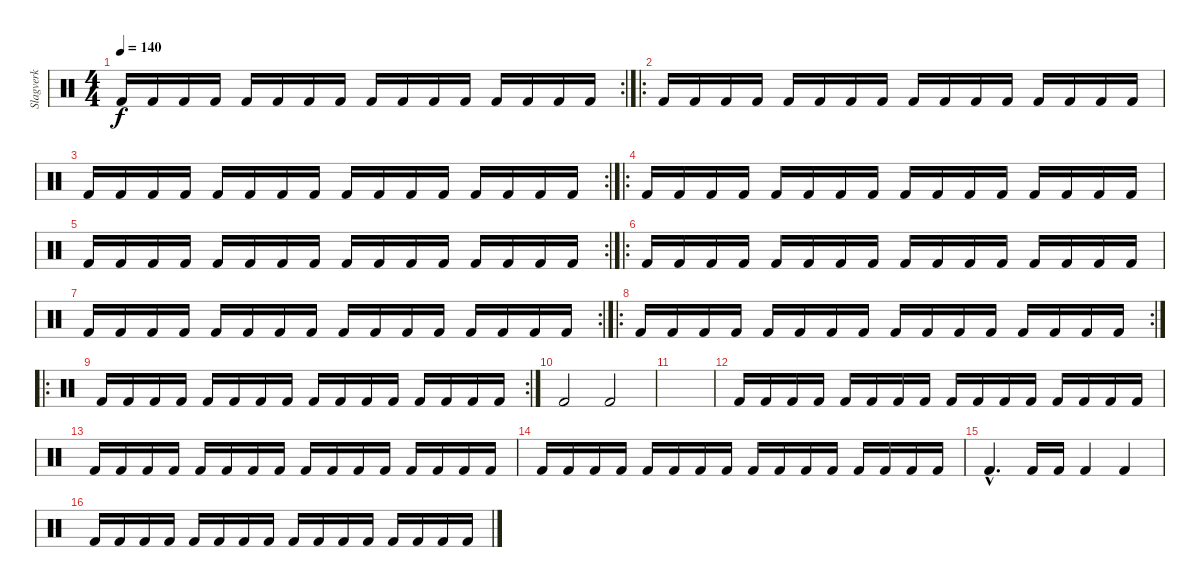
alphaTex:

\track ("Slagverk" "Slagverk") {instrument percussion}
\staff {score}
\articulation defaults
\rc 2
\ts (4 4)
\tempo 140
\clef neutral
\ks c "Kick (hit) 2".16{dy f} "Kick (hit) 2".16 "Kick (hit) 2".16 "Kick (hit) 2".16 "Kick (hit) 2".16 "Kick (hit) 2".16 "Kick (hit) 2".16 "Kick (hit) 2".16 "Kick (hit) 2".16 "Kick (hit) 2".16 "Kick (hit) 2".16 "Kick (hit) 2".16 "Kick (hit) 2".16 "Kick (hit) 2".16 "Kick (hit) 2".16 "Kick (hit) 2".16
|
\ro "Kick (hit) 2".16 "Kick (hit) 2".16 "Kick (hit) 2".16 "Kick (hit) 2".16 "Kick (hit) 2".16 "Kick (hit) 2".16 "Kick (hit) 2".16 "Kick (hit) 2".16 "Kick (hit) 2".16 "Kick (hit) 2".16 "Kick (hit) 2".16 "Kick (hit) 2".16 "Kick (hit) 2".16 "Kick (hit) 2".16 "Kick (hit) 2".16 "Kick (hit) 2".16
|
\rc 2 "Kick (hit) 2".16 "Kick (hit) 2".16 "Kick (hit) 2".16 "Kick (hit) 2".16 "Kick (hit) 2".16 "Kick (hit) 2".16 "Kick (hit) 2".16 "Kick (hit) 2".16 "Kick (hit) 2".16 "Kick (hit) 2".16 "Kick (hit) 2".16 "Kick (hit) 2".16 "Kick (hit) 2".16 "Kick (hit) 2".16 "Kick (hit) 2".16 "Kick (hit) 2".16
|
\ro "Kick (hit) 2".16 "Kick (hit) 2".16 "Kick (hit) 2".16 "Kick (hit) 2".16 "Kick (hit) 2".16 "Kick (hit) 2".16 "Kick (hit) 2".16 "Kick (hit) 2".16 "Kick (hit) 2".16 "Kick (hit) 2".16 "Kick (hit) 2".16 "Kick (hit) 2".16 "Kick (hit) 2".16 "Kick (hit) 2".16 "Kick (hit) 2".16 "Kick (hit) 2".16
|
\rc 2 "Kick (hit) 2".16 "Kick (hit) 2".16 "Kick (hit) 2".16 "Kick (hit) 2".16 "Kick (hit) 2".16 "Kick (hit) 2".16 "Kick (hit) 2".16 "Kick (hit) 2".16 "Kick (hit) 2".16 "Kick (hit) 2".16 "Kick (hit) 2".16 "Kick (hit) 2".16 "Kick (hit) 2".16 "Kick (hit) 2".16 "Kick (hit) 2".16 "Kick (hit) 2".16
|
\ro "Kick (hit) 2".16 "Kick (hit) 2".16 "Kick (hit) 2".16 "Kick (hit) 2".16 "Kick (hit) 2".16 "Kick (hit) 2".16 "Kick (hit) 2".16 "Kick (hit) 2".16 "Kick (hit) 2".16 "Kick (hit) 2".16 "Kick (hit) 2".16 "Kick (hit) 2".16 "Kick (hit) 2".16 "Kick (hit) 2".16 "Kick (hit) 2".16 "Kick (hit) 2".16
|
\rc 2 "Kick (hit) 2".16 "Kick (hit) 2".16 "Kick (hit) 2".16 "Kick (hit) 2".16 "Kick (hit) 2".16 "Kick (hit) 2".16 "Kick (hit) 2".16 "Kick (hit) 2".16 "Kick (hit) 2".16 "Kick (hit) 2".16 "Kick (hit) 2".16 "Kick (hit) 2".16 "Kick (hit) 2".16 "Kick (hit) 2".16 "Kick (hit) 2".16 "Kick (hit) 2".16
|
\ro
\rc 2 "Kick (hit) 2".16 "Kick (hit) 2".16 "Kick (hit) 2".16 "Kick (hit) 2".16 "Kick (hit) 2".16 "Kick (hit) 2".16 "Kick (hit) 2".16 "Kick (hit) 2".16 "Kick (hit) 2".16 "Kick (hit) 2".16 "Kick (hit) 2".16 "Kick (hit) 2".16 "Kick (hit) 2".16 "Kick (hit) 2".16 "Kick (hit) 2".16 "Kick (hit) 2".16
|
\ro
\rc 2 "Kick (hit) 2".16 "Kick (hit) 2".16 "Kick (hit) 2".16 "Kick (hit) 2".16 "Kick (hit) 2".16 "Kick (hit) 2".16 "Kick (hit) 2".16 "Kick (hit) 2".16 "Kick (hit) 2".16 "Kick (hit) 2".16 "Kick (hit) 2".16 "Kick (hit) 2".16 "Kick (hit) 2".16 "Kick (hit) 2".16 "Kick (hit) 2".16 "Kick (hit) 2".16
|
"Kick (hit) 2".2 "Kick (hit) 2".2 |
|
"Kick (hit) 2".16 "Kick (hit) 2".16 "Kick (hit) 2".16 "Kick (hit) 2".16 "Kick (hit) 2".16 "Kick (hit) 2".16 "Kick (hit) 2".16 "Kick (hit) 2".16 "Kick (hit) 2".16 "Kick (hit) 2".16 "Kick (hit) 2".16 "Kick (hit) 2".16 "Kick (hit) 2".16 "Kick (hit) 2".16 "Kick (hit) 2".16 "Kick (hit) 2".16 |
"Kick (hit) 2".16 "Kick (hit) 2".16 "Kick (hit) 2".16 "Kick (hit) 2".16 "Kick (hit) 2".16 "Kick (hit) 2".16 "Kick (hit) 2".16 "Kick (hit) 2".16 "Kick (hit) 2".16 "Kick (hit) 2".16 "Kick (hit) 2".16 "Kick (hit) 2".16 "Kick (hit) 2".16 "Kick (hit) 2".16 "Kick (hit) 2".16 "Kick (hit) 2".16 |
"Kick (hit) 2".16 "Kick (hit) 2".16 "Kick (hit) 2".16 "Kick (hit) 2".16 "Kick (hit) 2".16 "Kick (hit) 2".16 "Kick (hit) 2".16 "Kick (hit) 2".16 "Kick (hit) 2".16 "Kick (hit) 2".16 "Kick (hit) 2".16 "Kick (hit) 2".16 "Kick (hit) 2".16 "Kick (hit) 2".16 "Kick (hit) 2".16 "Kick (hit) 2".16 |
"Kick (hit) 2"{hac}.4{d} "Kick (hit) 2".16 "Kick (hit) 2".16 "Kick (hit) 2".4 "Kick (hit) 2".4 |
"Kick (hit) 2".16 "Kick (hit) 2".16 "Kick (hit) 2".16 "Kick (hit) 2".16 "Kick (hit) 2".16 "Kick (hit) 2".16 "Kick (hit) 2".16 "Kick (hit) 2".16 "Kick (hit) 2".16 "Kick (hit) 2".16 "Kick (hit) 2".16 "Kick (hit) 2".16 "Kick (hit) 2".16 "Kick (hit) 2".16 "Kick (hit) 2".16 "Kick (hit) 2".16
